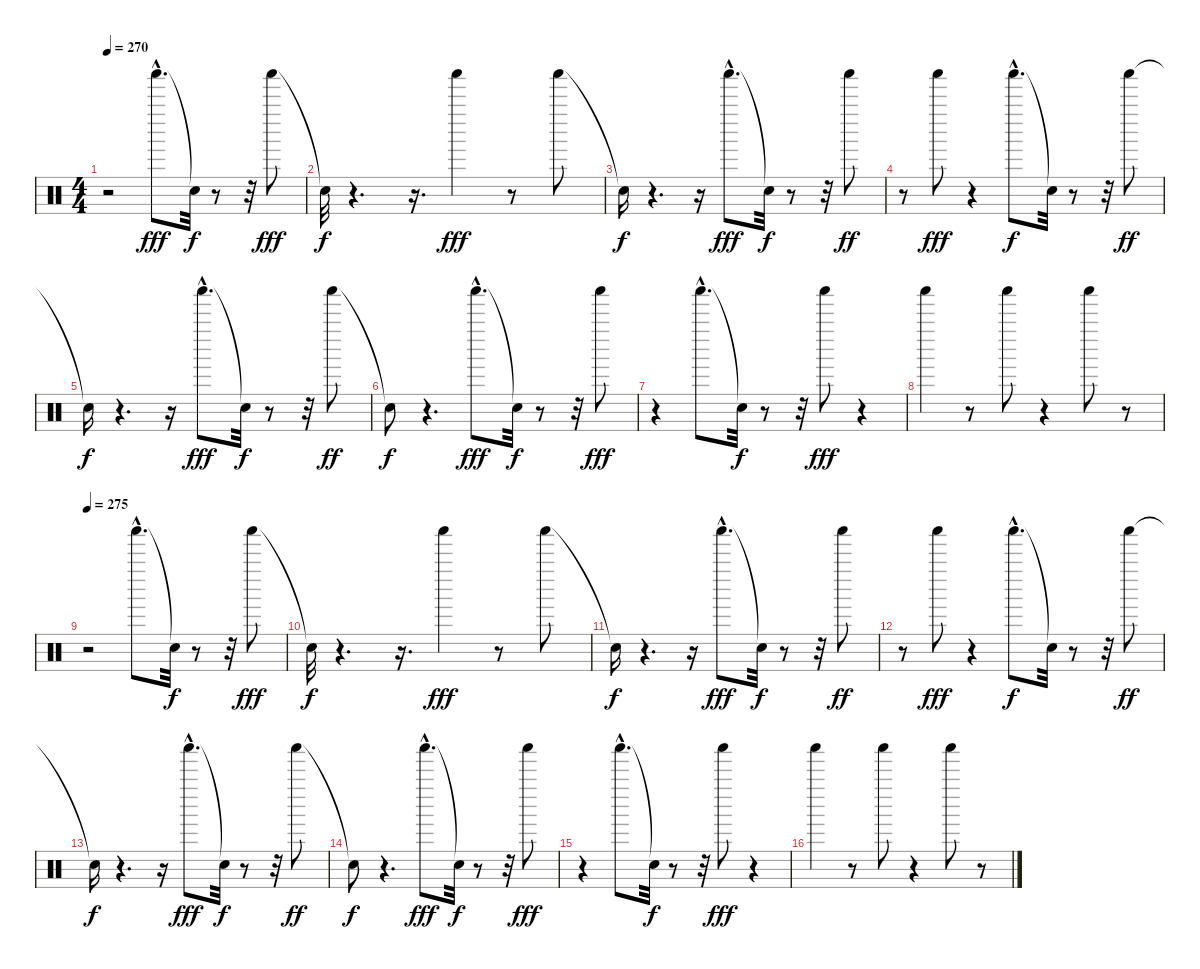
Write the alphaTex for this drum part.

\track "" {instrument percussion}
\staff {score}
\articulation defaults
\ts (4 4)
\tempo 270
\clef neutral
\ks c
r.2{dy mp} "Shaker (hit)"{hac}.8{d dy fff} "Snare (hit)"{t}.32{dy f} r.8 r.32 "Shaker (hit)".8{dy fff} |
"Snare (hit)"{t}.32{dy f} r.4{d} r.16{d} "Shaker (hit)".4{dy fff} r.8 "Shaker (hit)".8 |
"Snare (hit)"{t}.16{dy f} r.4{d} r.16 "Shaker (hit)"{hac}.8{d dy fff} "Snare (hit)"{t}.32{dy f} r.8 r.32 "Shaker (hit)".8{dy ff} |
r.8 "Shaker (hit)".8{dy fff} r.4 "Shaker (hit)"{hac}.8{d dy f} "Snare (hit)"{t}.32 r.8 r.32 "Shaker (hit)".8{dy ff} |
"Snare (hit)"{t}.16{dy f} r.4{d} r.16 "Shaker (hit)"{hac}.8{d dy fff} "Snare (hit)"{t}.32{dy f} r.8 r.32 "Shaker (hit)".8{dy ff} |
"Snare (hit)"{t}.8{dy f} r.4{d} "Shaker (hit)"{hac}.8{d dy fff} "Snare (hit)"{t}.32{dy f} r.8 r.32 "Shaker (hit)".8{dy fff} |
r.4 "Shaker (hit)"{hac}.8{d} "Snare (hit)"{t}.32{dy f} r.8 r.32 "Shaker (hit)".8{dy fff} r.4 |
"Shaker (hit)".4 r.8 "Shaker (hit)".8 r.4 "Shaker (hit)".8 r.8 |
\tempo 275
r.2 "Shaker (hit)"{hac}.8{d} "Snare (hit)"{t}.32{dy f} r.8 r.32 "Shaker (hit)".8{dy fff} |
"Snare (hit)"{t}.32{dy f} r.4{d} r.16{d} "Shaker (hit)".4{dy fff} r.8 "Shaker (hit)".8 |
"Snare (hit)"{t}.16{dy f} r.4{d} r.16 "Shaker (hit)"{hac}.8{d dy fff} "Snare (hit)"{t}.32{dy f} r.8 r.32 "Shaker (hit)".8{dy ff} |
r.8 "Shaker (hit)".8{dy fff} r.4 "Shaker (hit)"{hac}.8{d dy f} "Snare (hit)"{t}.32 r.8 r.32 "Shaker (hit)".8{dy ff} |
"Snare (hit)"{t}.16{dy f} r.4{d} r.16 "Shaker (hit)"{hac}.8{d dy fff} "Snare (hit)"{t}.32{dy f} r.8 r.32 "Shaker (hit)".8{dy ff} |
"Snare (hit)"{t}.8{dy f} r.4{d} "Shaker (hit)"{hac}.8{d dy fff} "Snare (hit)"{t}.32{dy f} r.8 r.32 "Shaker (hit)".8{dy fff} |
r.4 "Shaker (hit)"{hac}.8{d} "Snare (hit)"{t}.32{dy f} r.8 r.32 "Shaker (hit)".8{dy fff} r.4 |
"Shaker (hit)".4 r.8 "Shaker (hit)".8 r.4 "Shaker (hit)".8 r.8
